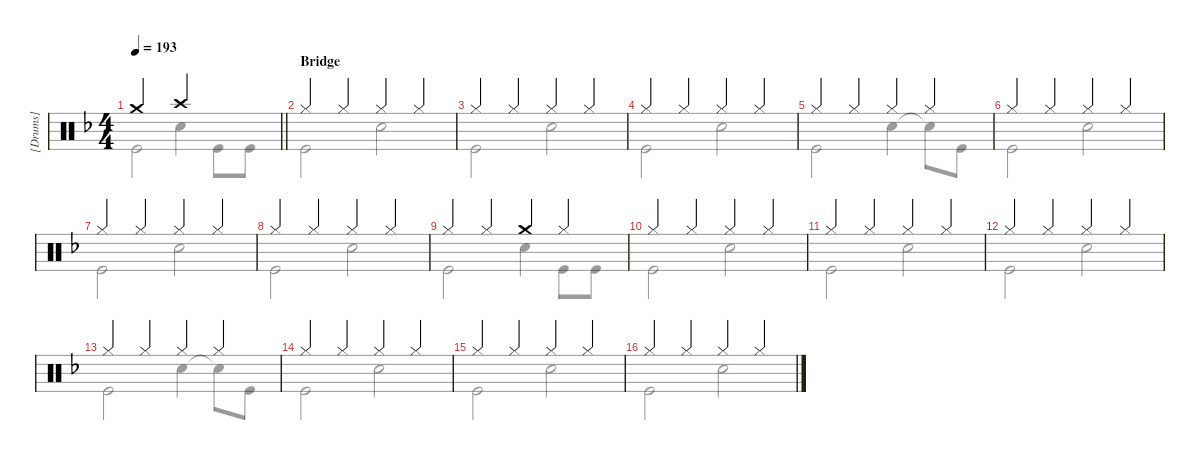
\hideDynamics
\bracketExtendMode groupsimilarinstruments
\firstSystemTrackNameMode fullname
\otherSystemsTrackNameMode fullname
\otherSystemsTrackNameOrientation horizontal
\track ("[Drums]" "Drums") {instrument percussion}
\staff {score}
\articulation defaults
\voice
\ts (4 4)
\tempo 193
\clef neutral
\barLineRight lightlight
\ks f "Crash medium (hit)".2{dy ff} "Crash high (hit)".2
|
\section ("" "Bridge")
"Hi-Hat (closed)".4 "Hi-Hat (closed)".4 "Hi-Hat (closed)".4 "Hi-Hat (closed)".4 |
"Hi-Hat (closed)".4 "Hi-Hat (closed)".4 "Hi-Hat (closed)".4 "Hi-Hat (closed)".4 |
"Hi-Hat (closed)".4 "Hi-Hat (closed)".4 "Hi-Hat (closed)".4 "Hi-Hat (closed)".4 |
"Hi-Hat (closed)".4 "Hi-Hat (closed)".4 "Hi-Hat (closed)".4 "Hi-Hat (closed)".4 |
"Hi-Hat (closed)".4 "Hi-Hat (closed)".4 "Hi-Hat (closed)".4 "Hi-Hat (closed)".4 |
"Hi-Hat (closed)".4 "Hi-Hat (closed)".4 "Hi-Hat (closed)".4 "Hi-Hat (closed)".4 |
"Hi-Hat (closed)".4 "Hi-Hat (closed)".4 "Hi-Hat (closed)".4 "Hi-Hat (closed)".4 |
"Hi-Hat (closed)".4 "Hi-Hat (closed)".4 "Crash medium (hit)".4 "Hi-Hat (closed)".4 |
"Hi-Hat (closed)".4 "Hi-Hat (closed)".4 "Hi-Hat (closed)".4 "Hi-Hat (closed)".4 |
"Hi-Hat (closed)".4 "Hi-Hat (closed)".4 "Hi-Hat (closed)".4 "Hi-Hat (closed)".4 |
"Hi-Hat (closed)".4 "Hi-Hat (closed)".4 "Hi-Hat (closed)".4 "Hi-Hat (closed)".4 |
"Hi-Hat (closed)".4 "Hi-Hat (closed)".4 "Hi-Hat (closed)".4 "Hi-Hat (closed)".4 |
"Hi-Hat (closed)".4 "Hi-Hat (closed)".4 "Hi-Hat (closed)".4 "Hi-Hat (closed)".4 |
"Hi-Hat (closed)".4 "Hi-Hat (closed)".4 "Hi-Hat (closed)".4 "Hi-Hat (closed)".4 |
"Hi-Hat (closed)".4 "Hi-Hat (closed)".4 "Hi-Hat (closed)".4 "Hi-Hat (closed)".4
\voice
\clef neutral
\ottava regular
\simile none
\barLineRight lightlight
\ks f "Kick (hit)".2{dy f} "Snare (hit) 2".4 "Kick (hit)".8 "Kick (hit)".8
|
"Kick (hit)".2 "Snare (hit) 2".2 |
"Kick (hit)".2 "Snare (hit) 2".2 |
"Kick (hit)".2 "Snare (hit) 2".2 |
"Kick (hit)".2 "Snare (hit) 2".4 "Snare (hit) 2"{t}.8 "Kick (hit)".8 |
"Kick (hit)".2 "Snare (hit) 2".2 |
"Kick (hit)".2 "Snare (hit) 2".2 |
"Kick (hit)".2 "Snare (hit) 2".2 |
"Kick (hit)".2 "Snare (hit) 2".4 "Kick (hit)".8 "Kick (hit)".8 |
"Kick (hit)".2 "Snare (hit) 2".2 |
"Kick (hit)".2 "Snare (hit) 2".2 |
"Kick (hit)".2 "Snare (hit) 2".2 |
"Kick (hit)".2 "Snare (hit) 2".4 "Snare (hit) 2"{t}.8 "Kick (hit)".8 |
"Kick (hit)".2 "Snare (hit) 2".2 |
"Kick (hit)".2 "Snare (hit) 2".2 |
"Kick (hit)".2 "Snare (hit) 2".2
